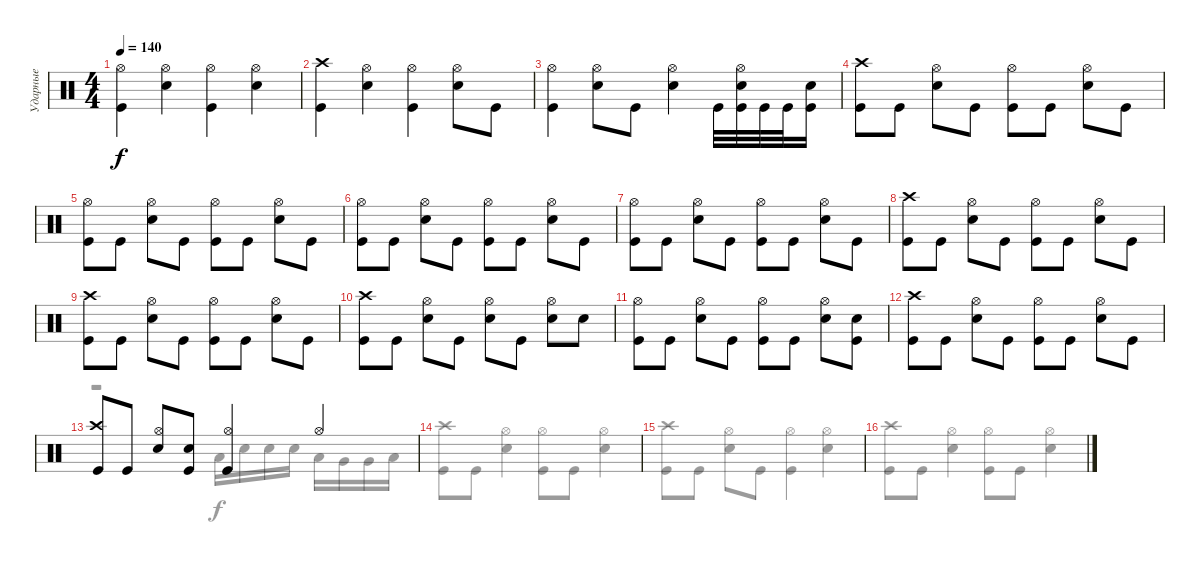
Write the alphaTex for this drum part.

\track ("Ударные" "Ударные") {instrument percussion}
\staff {score}
\articulation defaults
\voice
\ts (4 4)
\tempo 140
\clef neutral
\ks c
("Hi-Hat (open)" "Kick (hit)").4{dy f} ("Hi-Hat (open)" "Electric Snare (hit)").4 ("Hi-Hat (open)" "Kick (hit)").4 ("Hi-Hat (open)" "Electric Snare (hit)").4 |
("Crash high (hit)" "Kick (hit)").4 ("Hi-Hat (open)" "Electric Snare (hit)").4 ("Hi-Hat (open)" "Kick (hit)").4 ("Hi-Hat (open)" "Electric Snare (hit)").8 "Kick (hit)".8 |
("Hi-Hat (open)" "Kick (hit)").4 ("Hi-Hat (open)" "Electric Snare (hit)").8 "Kick (hit)".8 ("Hi-Hat (open)" "Electric Snare (hit)").4 "Kick (hit)".32 ("Hi-Hat (open)" "Electric Snare (hit)" "Kick (hit)").32 "Kick (hit)".32 "Kick (hit)".32 ("Electric Snare (hit)" "Kick (hit)").16 |
("Crash high (hit)" "Kick (hit)").8 "Kick (hit)".8 ("Hi-Hat (open)" "Electric Snare (hit)").8 "Kick (hit)".8 ("Hi-Hat (open)" "Kick (hit)").8 "Kick (hit)".8 ("Hi-Hat (open)" "Electric Snare (hit)").8 "Kick (hit)".8 |
("Hi-Hat (open)" "Kick (hit)").8 "Kick (hit)".8 ("Hi-Hat (open)" "Electric Snare (hit)").8 "Kick (hit)".8 ("Hi-Hat (open)" "Kick (hit)").8 "Kick (hit)".8 ("Hi-Hat (open)" "Electric Snare (hit)").8 "Kick (hit)".8 |
("Hi-Hat (open)" "Kick (hit)").8 "Kick (hit)".8 ("Hi-Hat (open)" "Electric Snare (hit)").8 "Kick (hit)".8 ("Hi-Hat (open)" "Kick (hit)").8 "Kick (hit)".8 ("Hi-Hat (open)" "Electric Snare (hit)").8 "Kick (hit)".8 |
("Hi-Hat (open)" "Kick (hit)").8 "Kick (hit)".8 ("Hi-Hat (open)" "Electric Snare (hit)").8 "Kick (hit)".8 ("Hi-Hat (open)" "Kick (hit)").8 "Kick (hit)".8 ("Hi-Hat (open)" "Electric Snare (hit)").8 "Kick (hit)".8 |
("Crash high (hit)" "Kick (hit)").8 "Kick (hit)".8 ("Hi-Hat (open)" "Electric Snare (hit)").8 "Kick (hit)".8 ("Hi-Hat (open)" "Kick (hit)").8 "Kick (hit)".8 ("Hi-Hat (open)" "Electric Snare (hit)").8 "Kick (hit)".8 |
("Crash high (hit)" "Kick (hit)").8 "Kick (hit)".8 ("Hi-Hat (open)" "Electric Snare (hit)").8 "Kick (hit)".8 ("Hi-Hat (open)" "Kick (hit)").8 "Kick (hit)".8 ("Hi-Hat (open)" "Electric Snare (hit)").8 "Kick (hit)".8 |
("Crash high (hit)" "Kick (hit)").8 "Kick (hit)".8 ("Hi-Hat (open)" "Electric Snare (hit)").8 "Kick (hit)".8 ("Hi-Hat (open)" "Electric Snare (hit)").8 "Kick (hit)".8 ("Hi-Hat (open)" "Electric Snare (hit)").8 "Electric Snare (hit)".8 |
("Hi-Hat (open)" "Kick (hit)").8 "Kick (hit)".8 ("Hi-Hat (open)" "Electric Snare (hit)").8 "Kick (hit)".8 ("Hi-Hat (open)" "Kick (hit)").8 "Kick (hit)".8 ("Hi-Hat (open)" "Electric Snare (hit)").8 ("Electric Snare (hit)" "Kick (hit)").8 |
("Crash high (hit)" "Kick (hit)").8 "Kick (hit)".8 ("Hi-Hat (open)" "Electric Snare (hit)").8 "Kick (hit)".8 ("Hi-Hat (open)" "Kick (hit)").8 "Kick (hit)".8 ("Hi-Hat (open)" "Electric Snare (hit)").8 "Kick (hit)".8 |
("Crash high (hit)" "Kick (hit)").8 "Kick (hit)".8 ("Hi-Hat (open)" "Electric Snare (hit)").8 ("Electric Snare (hit)" "Kick (hit)").8 ("Hi-Hat (open)" "Kick (hit)").4 "Hi-Hat (open)".4 |
|
|
\voice
\clef neutral
\ottava regular
\simile none
\ks c
|
|
|
|
|
|
|
|
|
|
|
|
r.2 "Low Floor Tom (hit)".16 "Electric Snare (hit)".16 "Electric Snare (hit)".16 "Electric Snare (hit)".16 "Low Tom (hit)".16 "Very Low Tom (hit)".16 "Very Low Tom (hit)".16 "Low Floor Tom (hit)".16 |
("Crash high (hit)" "Kick (hit)").8 "Kick (hit)".8 ("Hi-Hat (open)" "Electric Snare (hit)").4 ("Hi-Hat (open)" "Kick (hit)").8 "Kick (hit)".8 ("Hi-Hat (open)" "Electric Snare (hit)").4 |
("Crash high (hit)" "Kick (hit)").8 "Kick (hit)".8 ("Hi-Hat (open)" "Electric Snare (hit)").8 "Kick (hit)".8 ("Hi-Hat (open)" "Kick (hit)").4 ("Hi-Hat (open)" "Electric Snare (hit)").4 |
("Crash high (hit)" "Kick (hit)").8 "Kick (hit)".8 ("Hi-Hat (open)" "Electric Snare (hit)").4 ("Hi-Hat (open)" "Kick (hit)").8 "Kick (hit)".8 ("Hi-Hat (open)" "Electric Snare (hit)").4
